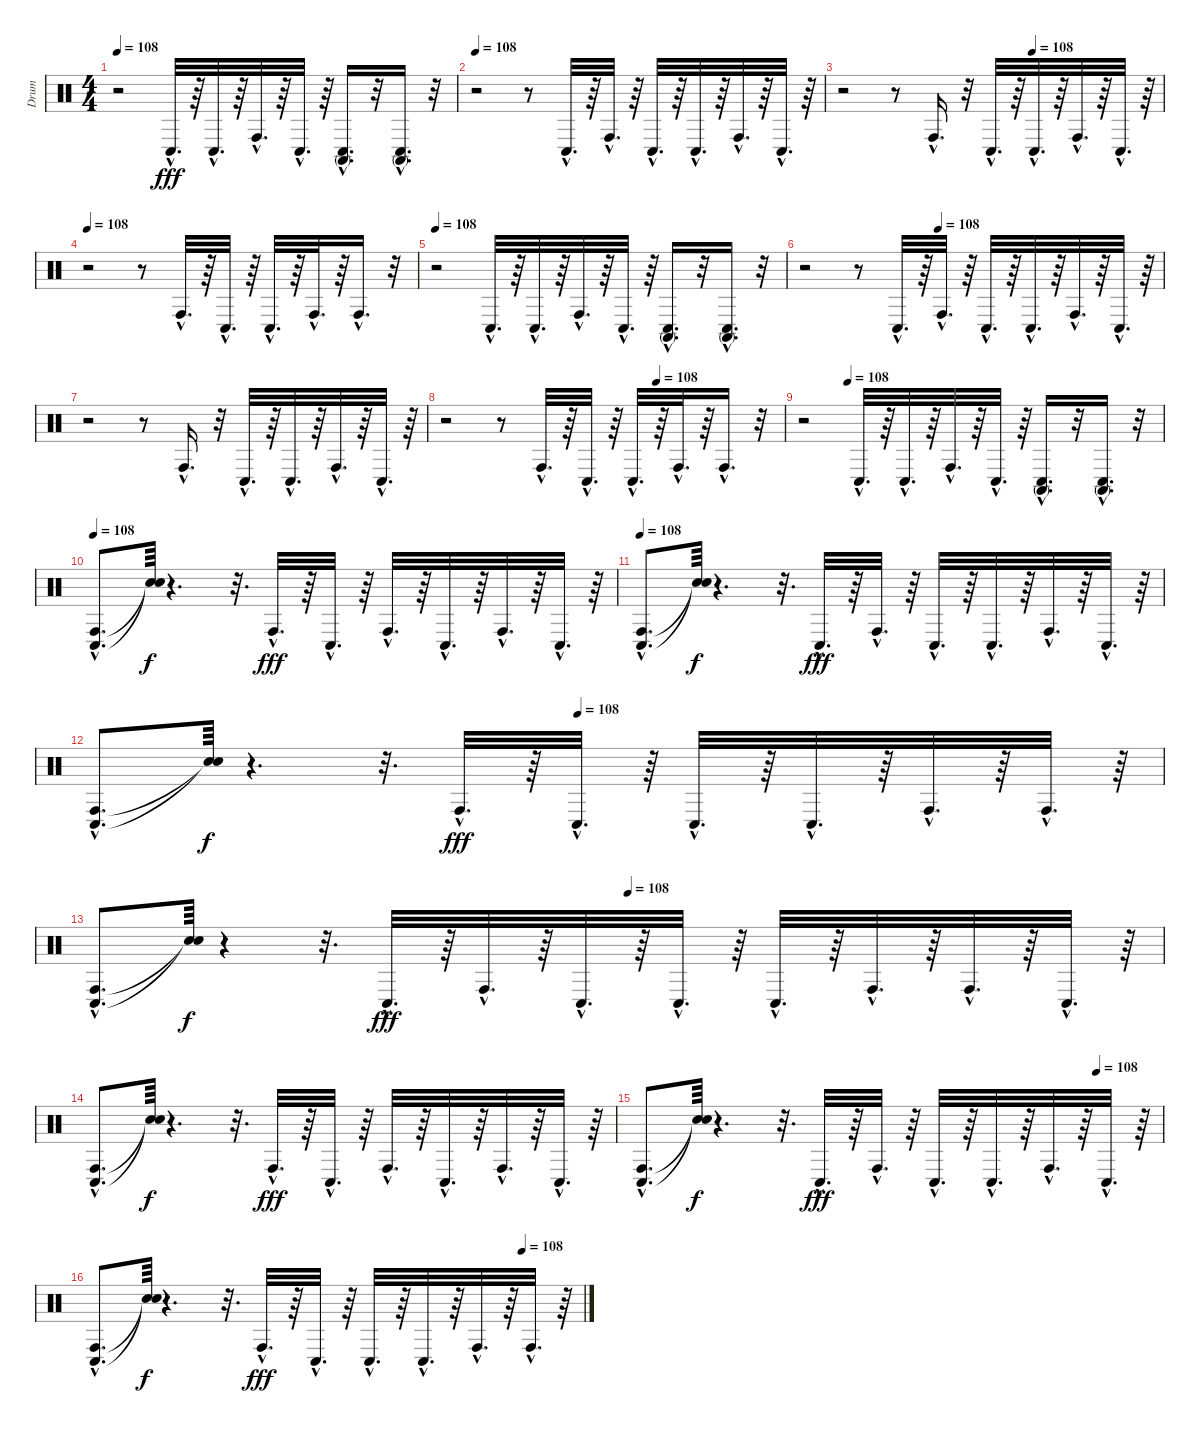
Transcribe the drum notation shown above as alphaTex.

\track ("Drum" "Drum") {instrument percussion}
\staff {score}
\articulation defaults
\ts (4 4)
\tempo 108
\clef neutral
\ks c
r.2{dy fff} "Conga low (hit)"{hac}.32{d} r.64 "Conga low (hit)"{hac}.32{d} r.64 "Conga high (hit)"{hac}.32{d} r.64 "Conga low (hit)"{hac}.32{d} r.64 ("Conga high (mute)"{hac} "Conga low (hit)"{hac}).16{d} r.32 ("Conga high (mute)"{hac} "Conga low (hit)"{hac}).16{d} r.32 |
\tempo 108
r.2 r.8 "Conga low (hit)"{hac}.32{d} r.64 "Conga high (hit)"{hac}.32{d} r.64 "Conga low (hit)"{hac}.32{d} r.64 "Conga low (hit)"{hac}.32{d} r.64 "Conga high (hit)"{hac}.32{d} r.64 "Conga low (hit)"{hac}.32{d} r.64 |
\tempo (108 0.59375)
r.2 r.8 "Conga high (hit)"{hac}.16{d} r.32 "Conga low (hit)"{hac}.32{d} r.64 "Conga low (hit)"{hac}.32{d} r.64 "Conga high (hit)"{hac}.32{d} r.64 "Conga low (hit)"{hac}.32{d} r.64 |
\tempo 108
r.2 r.8 "Conga high (hit)"{hac}.32{d} r.64 "Conga low (hit)"{hac}.32{d} r.64 "Conga low (hit)"{hac}.32{d} r.64 "Conga high (hit)"{hac}.32{d} r.64 "Conga high (hit)"{hac}.16{d} r.32 |
\tempo 108
r.2 "Conga low (hit)"{hac}.32{d} r.64 "Conga low (hit)"{hac}.32{d} r.64 "Conga high (hit)"{hac}.32{d} r.64 "Conga low (hit)"{hac}.32{d} r.64 ("Conga high (mute)"{hac} "Conga low (hit)"{hac}).16{d} r.32 ("Conga high (mute)"{hac} "Conga low (hit)"{hac}).16{d} r.32 |
\tempo (108 0.375)
r.2 r.8 "Conga low (hit)"{hac}.32{d} r.64 "Conga high (hit)"{hac}.32{d} r.64 "Conga low (hit)"{hac}.32{d} r.64 "Conga low (hit)"{hac}.32{d} r.64 "Conga high (hit)"{hac}.32{d} r.64 "Conga low (hit)"{hac}.32{d} r.64 |
r.2 r.8 "Conga high (hit)"{hac}.16{d} r.32 "Conga low (hit)"{hac}.32{d} r.64 "Conga low (hit)"{hac}.32{d} r.64 "Conga high (hit)"{hac}.32{d} r.64 "Conga low (hit)"{hac}.32{d} r.64 |
\tempo (108 0.625)
r.2 r.8 "Conga high (hit)"{hac}.32{d} r.64 "Conga low (hit)"{hac}.32{d} r.64 "Conga low (hit)"{hac}.32{d} r.64 "Conga high (hit)"{hac}.32{d} r.64 "Conga high (hit)"{hac}.16{d} r.32 |
\tempo (108 0.125)
r.2 "Conga low (hit)"{hac}.32{d} r.64 "Conga low (hit)"{hac}.32{d} r.64 "Conga high (hit)"{hac}.32{d} r.64 "Conga low (hit)"{hac}.32{d} r.64 ("Conga high (mute)"{hac} "Conga low (hit)"{hac}).16{d} r.32 ("Conga high (mute)"{hac} "Conga low (hit)"{hac}).16{d} r.32 |
\tempo 108
("Conga high (hit)"{hac} "Conga low (hit)"{hac}).8{d} ("Snare (hit)"{t} "Snare (hit)"{t}).64{dy f} r.4{d} r.32{d} "Conga high (hit)"{hac}.32{d dy fff} r.64 "Conga low (hit)"{hac}.32{d} r.64 "Conga high (hit)"{hac}.32{d} r.64 "Conga low (hit)"{hac}.32{d} r.64 "Conga high (hit)"{hac}.32{d} r.64 "Conga low (hit)"{hac}.32{d} r.64 |
\tempo 108
("Conga high (hit)"{hac} "Conga low (hit)"{hac}).8{d} ("Snare (hit)"{t} "Snare (hit)"{t}).64{dy f} r.4{d} r.32{d} "Conga low (hit)"{hac}.32{d dy fff} r.64 "Conga high (hit)"{hac}.32{d} r.64 "Conga low (hit)"{hac}.32{d} r.64 "Conga low (hit)"{hac}.32{d} r.64 "Conga high (hit)"{hac}.32{d} r.64 "Conga low (hit)"{hac}.32{d} r.64 |
\tempo (108 0.453125)
("Conga low (hit)"{hac} "Conga high (hit)"{hac}).8{d} ("Snare (hit)"{t} "Snare (hit)"{t}).64{dy f} r.4{d} r.32{d} "Conga high (hit)"{hac}.32{d dy fff} r.64 "Conga low (hit)"{hac}.32{d} r.64 "Conga low (hit)"{hac}.32{d} r.64 "Conga low (hit)"{hac}.32{d} r.64 "Conga high (hit)"{hac}.32{d} r.64 "Conga high (hit)"{hac}.32{d} r.64 |
\tempo (108 0.5)
("Conga low (hit)"{hac} "Conga high (hit)"{hac}).8{d} ("Snare (hit)"{t} "Snare (hit)"{t}).64{dy f} r.4 r.32{d} "Conga low (hit)"{hac}.32{d dy fff} r.64 "Conga high (hit)"{hac}.32{d} r.64 "Conga low (hit)"{hac}.32{d} r.64 "Conga low (hit)"{hac}.32{d} r.64 "Conga low (hit)"{hac}.32{d} r.64 "Conga high (hit)"{hac}.32{d} r.64 "Conga high (hit)"{hac}.32{d} r.64 "Conga low (hit)"{hac}.32{d} r.64 |
("Conga low (hit)"{hac} "Conga high (hit)"{hac}).8{d} ("Snare (hit)"{t} "Snare (hit)"{t}).64{dy f} r.4{d} r.32{d} "Conga high (hit)"{hac}.32{d dy fff} r.64 "Conga low (hit)"{hac}.32{d} r.64 "Conga high (hit)"{hac}.32{d} r.64 "Conga low (hit)"{hac}.32{d} r.64 "Conga high (hit)"{hac}.32{d} r.64 "Conga low (hit)"{hac}.32{d} r.64 |
\tempo (108 0.875)
("Conga low (hit)"{hac} "Conga high (hit)"{hac}).8{d} ("Snare (hit)"{t} "Snare (hit)"{t}).64{dy f} r.4{d} r.32{d} "Conga low (hit)"{hac}.32{d dy fff} r.64 "Conga high (hit)"{hac}.32{d} r.64 "Conga low (hit)"{hac}.32{d} r.64 "Conga low (hit)"{hac}.32{d} r.64 "Conga high (hit)"{hac}.32{d} r.64 "Conga low (hit)"{hac}.32{d} r.64 |
\tempo (108 0.875)
("Conga high (hit)"{hac} "Conga low (hit)"{hac}).8{d} ("Snare (hit)"{t} "Snare (hit)"{t}).64{dy f} r.4{d} r.32{d} "Conga high (hit)"{hac}.32{d dy fff} r.64 "Conga low (hit)"{hac}.32{d} r.64 "Conga low (hit)"{hac}.32{d} r.64 "Conga low (hit)"{hac}.32{d} r.64 "Conga high (hit)"{hac}.32{d} r.64 "Conga high (hit)"{hac}.32{d} r.64
